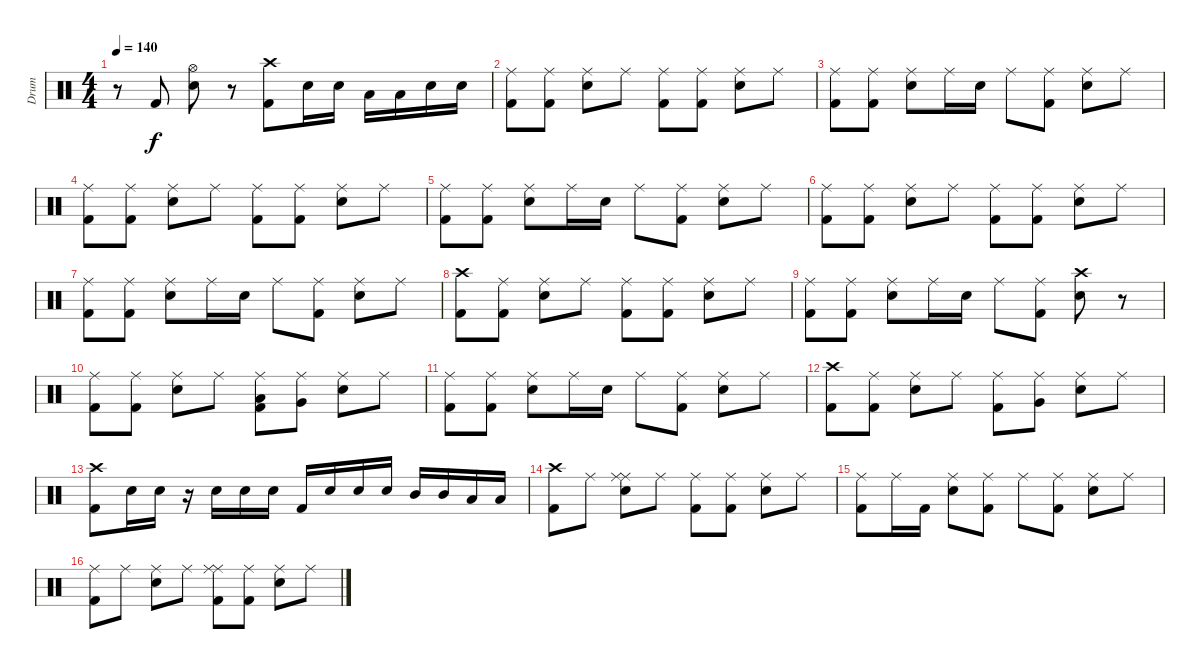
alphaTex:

\track ("Drum" "Drum") {instrument percussion}
\staff {score}
\articulation defaults
\ts (4 4)
\tempo 140
\clef neutral
\ks c
r.8{dy f} "Kick (hit) 2".8 ("Electric Snare (hit)" "Hi-Hat (open)").8 r.8 ("Kick (hit) 2" "Crash high (hit)").8 "Electric Snare (hit)".16 "Electric Snare (hit)".16 "Low Tom (hit)".16 "Low Tom (hit)".16 "Electric Snare (hit)".16 "Electric Snare (hit)".16 |
("Kick (hit) 2" "Ride (middle)").8 ("Kick (hit) 2" "Ride (middle)").8 ("Electric Snare (hit)" "Ride (middle)").8 "Ride (middle)".8 ("Kick (hit) 2" "Ride (middle)").8 ("Kick (hit) 2" "Ride (middle)").8 ("Electric Snare (hit)" "Ride (middle)").8 "Ride (middle)".8 |
("Kick (hit) 2" "Ride (middle)").8 ("Kick (hit) 2" "Ride (middle)").8 ("Electric Snare (hit)" "Ride (middle)").8 "Ride (middle)".16 "Electric Snare (hit)".16 "Ride (middle)".8 ("Kick (hit) 2" "Ride (middle)").8 ("Electric Snare (hit)" "Ride (middle)").8 "Ride (middle)".8 |
("Kick (hit) 2" "Ride (middle)").8 ("Kick (hit) 2" "Ride (middle)").8 ("Electric Snare (hit)" "Ride (middle)").8 "Ride (middle)".8 ("Kick (hit) 2" "Ride (middle)").8 ("Kick (hit) 2" "Ride (middle)").8 ("Electric Snare (hit)" "Ride (middle)").8 "Ride (middle)".8 |
("Kick (hit) 2" "Ride (middle)").8 ("Kick (hit) 2" "Ride (middle)").8 ("Electric Snare (hit)" "Ride (middle)").8 "Ride (middle)".16 "Electric Snare (hit)".16 "Ride (middle)".8 ("Kick (hit) 2" "Ride (middle)").8 ("Electric Snare (hit)" "Ride (middle)").8 "Ride (middle)".8 |
("Kick (hit) 2" "Ride (middle)").8 ("Kick (hit) 2" "Ride (middle)").8 ("Electric Snare (hit)" "Ride (middle)").8 "Ride (middle)".8 ("Kick (hit) 2" "Ride (middle)").8 ("Kick (hit) 2" "Ride (middle)").8 ("Electric Snare (hit)" "Ride (middle)").8 "Ride (middle)".8 |
("Kick (hit) 2" "Ride (middle)").8 ("Kick (hit) 2" "Ride (middle)").8 ("Electric Snare (hit)" "Ride (middle)").8 "Ride (middle)".16 "Electric Snare (hit)".16 "Ride (middle)".8 ("Kick (hit) 2" "Ride (middle)").8 ("Electric Snare (hit)" "Ride (middle)").8 "Ride (middle)".8 |
("Kick (hit) 2" "Crash high (hit)").8 ("Kick (hit) 2" "Ride (middle)").8 ("Electric Snare (hit)" "Ride (middle)").8 "Ride (middle)".8 ("Kick (hit) 2" "Ride (middle)").8 ("Kick (hit) 2" "Ride (middle)").8 ("Electric Snare (hit)" "Ride (middle)").8 "Ride (middle)".8 |
("Kick (hit) 2" "Ride (middle)").8 ("Kick (hit) 2" "Ride (middle)").8 ("Electric Snare (hit)" "Ride (middle)").8 "Ride (middle)".16 "Electric Snare (hit)".16 "Ride (middle)".8 ("Kick (hit) 2" "Ride (middle)").8 ("Electric Snare (hit)" "Crash high (hit)").8 r.8 |
("Kick (hit) 2" "Ride (middle)").8 ("Kick (hit) 2" "Ride (middle)").8 ("Electric Snare (hit)" "Ride (middle)").8 "Ride (middle)".8 ("Low Tom (hit)" "Kick (hit) 2" "Ride (middle)").8 ("Very Low Tom (hit)" "Ride (middle)").8 ("Electric Snare (hit)" "Ride (middle)").8 "Ride (middle)".8 |
("Kick (hit) 2" "Ride (middle)").8 ("Kick (hit) 2" "Ride (middle)").8 ("Electric Snare (hit)" "Ride (middle)").8 "Ride (middle)".16 "Electric Snare (hit)".16 "Ride (middle)".8 ("Kick (hit) 2" "Ride (middle)").8 ("Electric Snare (hit)" "Ride (middle)").8 "Ride (middle)".8 |
("Kick (hit) 2" "Crash high (hit)").8 ("Kick (hit) 2" "Ride (middle)").8 ("Electric Snare (hit)" "Ride (middle)").8 "Ride (middle)".8 ("Kick (hit) 2" "Ride (middle)").8 ("Very Low Tom (hit)" "Ride (middle)").8 ("Electric Snare (hit)" "Ride (middle)").8 "Ride (middle)".8 |
("Kick (hit) 2" "Crash high (hit)").8 "Electric Snare (hit)".16 "Electric Snare (hit)".16 r.16 "Electric Snare (hit)".16 "Electric Snare (hit)".16 "Electric Snare (hit)".16 "Kick (hit) 2".16 "Electric Snare (hit)".16 "Electric Snare (hit)".16 "Electric Snare (hit)".16 "Mid Tom (hit)".16 "Mid Tom (hit)".16 "Low Tom (hit)".16 "Low Tom (hit)".16 |
("Kick (hit) 2" "Crash high (hit)").8 "Ride (middle)".8 ("Electric Snare (hit)" "Ride (middle)" "Ride (middle)").8 "Ride (middle)".8 ("Kick (hit) 2" "Ride (middle)").8 ("Kick (hit) 2" "Ride (middle)").8 ("Electric Snare (hit)" "Ride (middle)").8 "Ride (middle)".8 |
("Kick (hit) 2" "Ride (middle)").8 "Ride (middle)".16 "Kick (hit) 2".16 ("Electric Snare (hit)" "Ride (middle)").8 ("Kick (hit) 2" "Ride (middle)").8 "Ride (middle)".8 ("Kick (hit) 2" "Ride (middle)").8 ("Electric Snare (hit)" "Ride (middle)").8 "Ride (middle)".8 |
("Kick (hit) 2" "Ride (middle)").8 "Ride (middle)".8 ("Electric Snare (hit)" "Ride (middle)").8 "Ride (middle)".8 ("Kick (hit) 2" "Ride (middle)" "Ride (middle)").8 ("Kick (hit) 2" "Ride (middle)").8 ("Electric Snare (hit)" "Ride (middle)").8 "Ride (middle)".8
